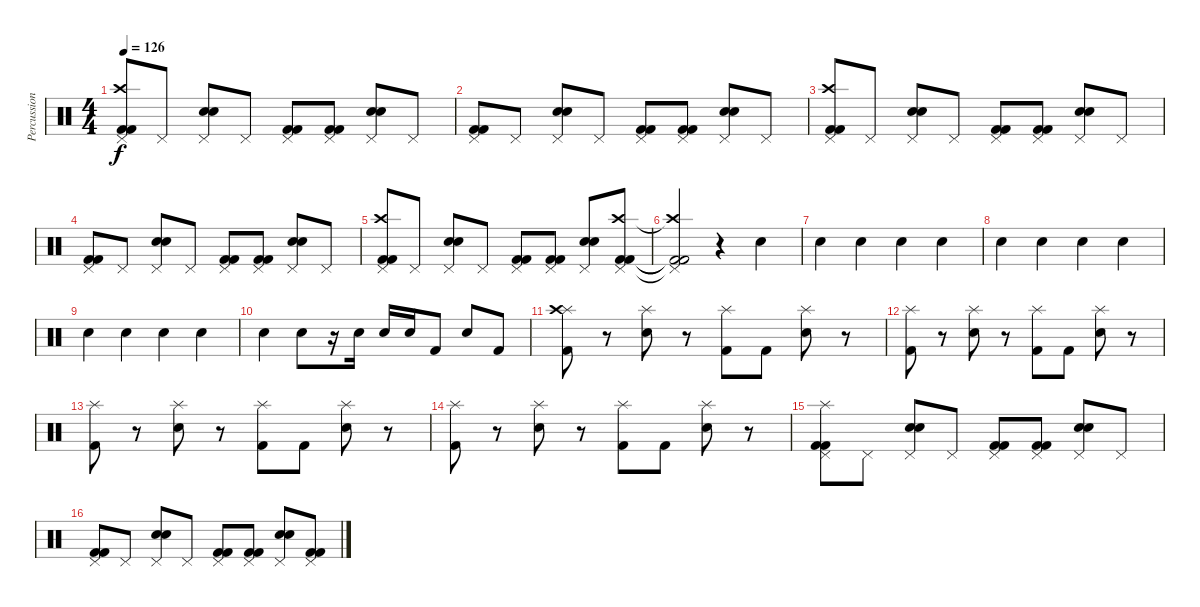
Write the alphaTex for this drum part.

\track ("Percussion" "Percussion") {instrument percussion}
\staff {score}
\articulation defaults
\ts (4 4)
\tempo 126
\clef neutral
\ks c
("Pedal Hi-Hat (hit)" "Crash high (hit)" "Kick (hit) 2" "Kick (hit) 2").8{dy f} "Pedal Hi-Hat (hit)".8 ("Pedal Hi-Hat (hit)" "Electric Snare (hit)" "Snare (hit) 2").8 "Pedal Hi-Hat (hit)".8 ("Pedal Hi-Hat (hit)" "Kick (hit) 2" "Kick (hit) 2").8 ("Pedal Hi-Hat (hit)" "Kick (hit) 2" "Kick (hit) 2").8 ("Pedal Hi-Hat (hit)" "Electric Snare (hit)" "Snare (hit) 2").8 "Pedal Hi-Hat (hit)".8 |
("Pedal Hi-Hat (hit)" "Kick (hit) 2" "Kick (hit) 2").8 "Pedal Hi-Hat (hit)".8 ("Pedal Hi-Hat (hit)" "Electric Snare (hit)" "Snare (hit) 2").8 "Pedal Hi-Hat (hit)".8 ("Pedal Hi-Hat (hit)" "Kick (hit) 2" "Kick (hit) 2").8 ("Pedal Hi-Hat (hit)" "Kick (hit) 2" "Kick (hit) 2").8 ("Pedal Hi-Hat (hit)" "Electric Snare (hit)" "Snare (hit) 2").8 "Pedal Hi-Hat (hit)".8 |
("Pedal Hi-Hat (hit)" "Crash high (hit)" "Kick (hit) 2" "Kick (hit) 2").8 "Pedal Hi-Hat (hit)".8 ("Pedal Hi-Hat (hit)" "Electric Snare (hit)" "Snare (hit) 2").8 "Pedal Hi-Hat (hit)".8 ("Pedal Hi-Hat (hit)" "Kick (hit) 2" "Kick (hit) 2").8 ("Pedal Hi-Hat (hit)" "Kick (hit) 2" "Kick (hit) 2").8 ("Pedal Hi-Hat (hit)" "Electric Snare (hit)" "Snare (hit) 2").8 "Pedal Hi-Hat (hit)".8 |
("Pedal Hi-Hat (hit)" "Kick (hit) 2" "Kick (hit) 2").8 "Pedal Hi-Hat (hit)".8 ("Pedal Hi-Hat (hit)" "Electric Snare (hit)" "Snare (hit) 2").8 "Pedal Hi-Hat (hit)".8 ("Pedal Hi-Hat (hit)" "Kick (hit) 2" "Kick (hit) 2").8 ("Pedal Hi-Hat (hit)" "Kick (hit) 2" "Kick (hit) 2").8 ("Pedal Hi-Hat (hit)" "Electric Snare (hit)" "Snare (hit) 2").8 "Pedal Hi-Hat (hit)".8 |
("Pedal Hi-Hat (hit)" "Crash high (hit)" "Kick (hit) 2" "Kick (hit) 2").8 "Pedal Hi-Hat (hit)".8 ("Pedal Hi-Hat (hit)" "Electric Snare (hit)" "Snare (hit) 2").8 "Pedal Hi-Hat (hit)".8 ("Pedal Hi-Hat (hit)" "Kick (hit) 2" "Kick (hit) 2").8 ("Pedal Hi-Hat (hit)" "Kick (hit) 2" "Kick (hit) 2").8 ("Pedal Hi-Hat (hit)" "Electric Snare (hit)" "Snare (hit) 2").8 ("Pedal Hi-Hat (hit)" "Crash high (hit)" "Kick (hit) 2" "Kick (hit) 2").8 |
("Pedal Hi-Hat (hit)"{t} "Crash high (hit)"{t} "Kick (hit) 2"{t} "Kick (hit) 2"{t}).2 r.4 "Electric Snare (hit)".4 |
"Electric Snare (hit)".4 "Electric Snare (hit)".4 "Electric Snare (hit)".4 "Electric Snare (hit)".4 |
"Electric Snare (hit)".4 "Electric Snare (hit)".4 "Electric Snare (hit)".4 "Electric Snare (hit)".4 |
"Electric Snare (hit)".4 "Electric Snare (hit)".4 "Electric Snare (hit)".4 "Electric Snare (hit)".4 |
"Electric Snare (hit)".4 "Electric Snare (hit)".8 r.16 "Electric Snare (hit)".16 "Electric Snare (hit)".16 "Electric Snare (hit)".16 "Kick (hit) 2".8 "Electric Snare (hit)".8 "Kick (hit) 2".8 |
("Splash (hit)" "Kick (hit) 2" "Crash high (hit)").8 r.8 ("Splash (hit)" "Electric Snare (hit)").8 r.8 ("Splash (hit)" "Kick (hit) 2").8 "Kick (hit) 2".8 ("Splash (hit)" "Electric Snare (hit)").8 r.8 |
("Splash (hit)" "Kick (hit) 2").8 r.8 ("Splash (hit)" "Electric Snare (hit)").8 r.8 ("Splash (hit)" "Kick (hit) 2").8 "Kick (hit) 2".8 ("Splash (hit)" "Electric Snare (hit)").8 r.8 |
("Splash (hit)" "Kick (hit) 2").8 r.8 ("Splash (hit)" "Electric Snare (hit)").8 r.8 ("Splash (hit)" "Kick (hit) 2").8 "Kick (hit) 2".8 ("Splash (hit)" "Electric Snare (hit)").8 r.8 |
("Splash (hit)" "Kick (hit) 2").8 r.8 ("Splash (hit)" "Electric Snare (hit)").8 r.8 ("Splash (hit)" "Kick (hit) 2").8 "Kick (hit) 2".8 ("Splash (hit)" "Electric Snare (hit)").8 r.8 |
("Pedal Hi-Hat (hit)" "Splash (hit)" "Kick (hit) 2" "Kick (hit) 2").8 "Pedal Hi-Hat (hit)".8 ("Pedal Hi-Hat (hit)" "Electric Snare (hit)" "Snare (hit) 2").8 "Pedal Hi-Hat (hit)".8 ("Pedal Hi-Hat (hit)" "Kick (hit) 2" "Kick (hit) 2").8 ("Pedal Hi-Hat (hit)" "Kick (hit) 2" "Kick (hit) 2").8 ("Pedal Hi-Hat (hit)" "Electric Snare (hit)" "Snare (hit) 2").8 "Pedal Hi-Hat (hit)".8 |
("Pedal Hi-Hat (hit)" "Kick (hit) 2" "Kick (hit) 2").8 "Pedal Hi-Hat (hit)".8 ("Pedal Hi-Hat (hit)" "Electric Snare (hit)" "Snare (hit) 2").8 "Pedal Hi-Hat (hit)".8 ("Pedal Hi-Hat (hit)" "Kick (hit) 2" "Kick (hit) 2").8 ("Pedal Hi-Hat (hit)" "Kick (hit) 2" "Kick (hit) 2").8 ("Pedal Hi-Hat (hit)" "Electric Snare (hit)" "Snare (hit) 2").8 ("Pedal Hi-Hat (hit)" "Kick (hit) 2" "Kick (hit) 2").8
